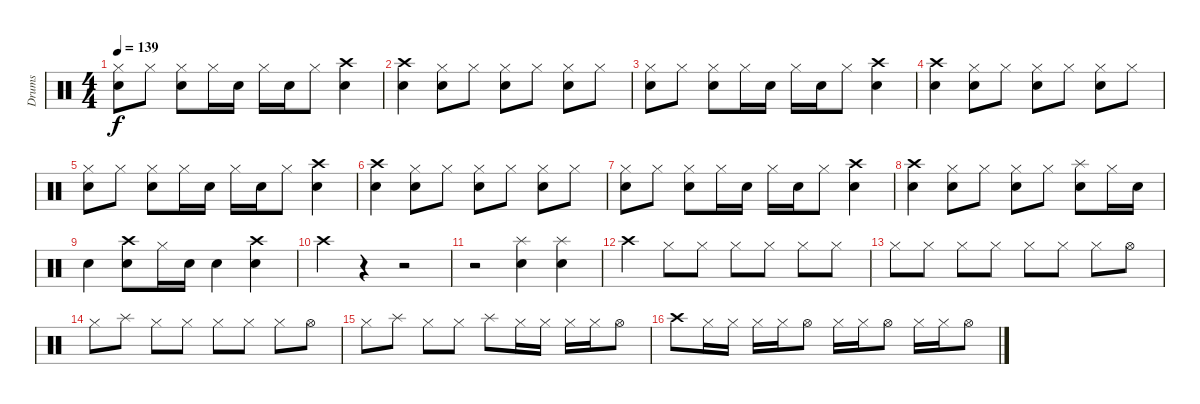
\track ("Drums" "Drums") {instrument percussion}
\staff {score}
\articulation defaults
\ts (4 4)
\tempo 139
\clef neutral
\ks c
("Hi-Hat (closed)" "Snare (hit) 2").8{dy f} "Hi-Hat (closed)".8 ("Hi-Hat (closed)" "Snare (hit) 2").8 "Hi-Hat (closed)".16 "Snare (hit) 2".16 "Hi-Hat (closed)".16 "Snare (hit) 2".16 "Hi-Hat (closed)".8 ("Crash high (hit)" "Snare (hit) 2").4 |
("Crash high (hit)" "Snare (hit) 2").4 ("Hi-Hat (closed)" "Snare (hit) 2").8 "Hi-Hat (closed)".8 ("Hi-Hat (closed)" "Snare (hit) 2").8 "Hi-Hat (closed)".8 ("Hi-Hat (closed)" "Snare (hit) 2").8 "Hi-Hat (closed)".8 |
("Hi-Hat (closed)" "Snare (hit) 2").8 "Hi-Hat (closed)".8 ("Hi-Hat (closed)" "Snare (hit) 2").8 "Hi-Hat (closed)".16 "Snare (hit) 2".16 "Hi-Hat (closed)".16 "Snare (hit) 2".16 "Hi-Hat (closed)".8 ("Crash high (hit)" "Snare (hit) 2").4 |
("Crash high (hit)" "Snare (hit) 2").4 ("Hi-Hat (closed)" "Snare (hit) 2").8 "Hi-Hat (closed)".8 ("Hi-Hat (closed)" "Snare (hit) 2").8 "Hi-Hat (closed)".8 ("Hi-Hat (closed)" "Snare (hit) 2").8 "Hi-Hat (closed)".8 |
("Hi-Hat (closed)" "Snare (hit) 2").8 "Hi-Hat (closed)".8 ("Hi-Hat (closed)" "Snare (hit) 2").8 "Hi-Hat (closed)".16 "Snare (hit) 2".16 "Hi-Hat (closed)".16 "Snare (hit) 2".16 "Hi-Hat (closed)".8 ("Crash high (hit)" "Snare (hit) 2").4 |
("Crash high (hit)" "Snare (hit) 2").4 ("Hi-Hat (closed)" "Snare (hit) 2").8 "Hi-Hat (closed)".8 ("Hi-Hat (closed)" "Snare (hit) 2").8 "Hi-Hat (closed)".8 ("Hi-Hat (closed)" "Snare (hit) 2").8 "Hi-Hat (closed)".8 |
("Hi-Hat (closed)" "Snare (hit) 2").8 "Hi-Hat (closed)".8 ("Hi-Hat (closed)" "Snare (hit) 2").8 "Hi-Hat (closed)".16 "Snare (hit) 2".16 "Hi-Hat (closed)".16 "Snare (hit) 2".16 "Hi-Hat (closed)".8 ("Crash high (hit)" "Snare (hit) 2").4 |
("Crash high (hit)" "Snare (hit) 2").4 ("Hi-Hat (closed)" "Snare (hit) 2").8 "Hi-Hat (closed)".8 ("Hi-Hat (closed)" "Snare (hit) 2").8 "Hi-Hat (closed)".8 ("Splash (hit)" "Snare (hit) 2").8 "Hi-Hat (closed)".16 "Snare (hit) 2".16 |
"Snare (hit) 2".4 ("Crash high (hit)" "Snare (hit) 2").8 "Hi-Hat (closed)".16 "Snare (hit) 2".16 "Snare (hit) 2".4 ("Crash high (hit)" "Snare (hit) 2").4 |
"Crash high (hit)".4 r.4 r.2 |
r.2 ("Splash (hit)" "Snare (hit) 2").4 ("Splash (hit)" "Snare (hit) 2").4 |
"Crash high (hit)".4 "Hi-Hat (closed)".8 "Hi-Hat (closed)".8 "Hi-Hat (closed)".8 "Hi-Hat (closed)".8 "Hi-Hat (closed)".8 "Hi-Hat (closed)".8 |
"Hi-Hat (closed)".8 "Hi-Hat (closed)".8 "Hi-Hat (closed)".8 "Hi-Hat (closed)".8 "Hi-Hat (closed)".8 "Hi-Hat (closed)".8 "Hi-Hat (closed)".8 "Hi-Hat (open)".8 |
"Hi-Hat (closed)".8 "Splash (hit)".8 "Hi-Hat (closed)".8 "Hi-Hat (closed)".8 "Hi-Hat (closed)".8 "Hi-Hat (closed)".8 "Hi-Hat (closed)".8 "Hi-Hat (open)".8 |
"Hi-Hat (closed)".8 "Splash (hit)".8 "Hi-Hat (closed)".8 "Hi-Hat (closed)".8 "Splash (hit)".8 "Hi-Hat (closed)".16 "Hi-Hat (closed)".16 "Hi-Hat (closed)".16 "Hi-Hat (closed)".16 "Hi-Hat (open)".8 |
"Crash high (hit)".8 "Hi-Hat (closed)".16 "Hi-Hat (closed)".16 "Hi-Hat (closed)".16 "Hi-Hat (closed)".16 "Hi-Hat (open)".8 "Hi-Hat (closed)".16 "Hi-Hat (closed)".16 "Hi-Hat (open)".8 "Hi-Hat (closed)".16 "Hi-Hat (closed)".16 "Hi-Hat (open)".8
